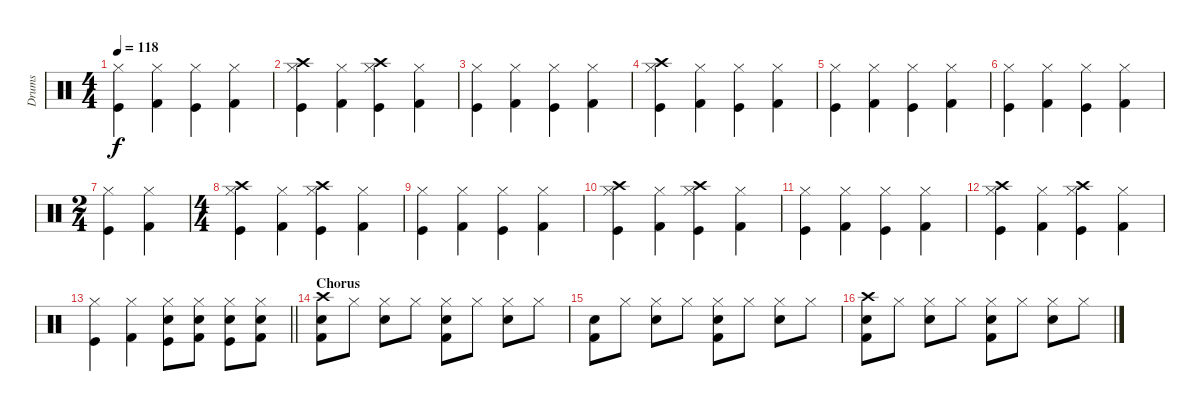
\track ("Drums" "Drums") {instrument percussion}
\staff {score}
\articulation defaults
\ts (4 4)
\tempo 118
\clef neutral
\ks c
("Kick (hit)" "Hi-Hat (closed)").4{dy f} ("Hi-Hat (closed)" "Kick (hit) 2").4 ("Kick (hit)" "Hi-Hat (closed)").4 ("Hi-Hat (closed)" "Kick (hit) 2").4 |
("Crash high (hit)" "Kick (hit)" "Hi-Hat (closed)").4 ("Hi-Hat (closed)" "Kick (hit) 2").4 ("Crash high (hit)" "Kick (hit)" "Hi-Hat (closed)").4 ("Hi-Hat (closed)" "Kick (hit) 2").4 |
("Kick (hit)" "Hi-Hat (closed)").4 ("Hi-Hat (closed)" "Kick (hit) 2").4 ("Kick (hit)" "Hi-Hat (closed)").4 ("Hi-Hat (closed)" "Kick (hit) 2").4 |
("Crash high (hit)" "Kick (hit)" "Hi-Hat (closed)").4 ("Hi-Hat (closed)" "Kick (hit) 2").4 ("Kick (hit)" "Hi-Hat (closed)").4 ("Hi-Hat (closed)" "Kick (hit) 2").4 |
("Kick (hit)" "Hi-Hat (closed)").4 ("Hi-Hat (closed)" "Kick (hit) 2").4 ("Kick (hit)" "Hi-Hat (closed)").4 ("Hi-Hat (closed)" "Kick (hit) 2").4 |
("Kick (hit)" "Hi-Hat (closed)").4 ("Hi-Hat (closed)" "Kick (hit) 2").4 ("Kick (hit)" "Hi-Hat (closed)").4 ("Hi-Hat (closed)" "Kick (hit) 2").4 |
\ts (2 4)
("Kick (hit)" "Hi-Hat (closed)").4 ("Hi-Hat (closed)" "Kick (hit) 2").4 |
\ts (4 4)
("Crash high (hit)" "Kick (hit)" "Hi-Hat (closed)").4 ("Hi-Hat (closed)" "Kick (hit) 2").4 ("Crash high (hit)" "Kick (hit)" "Hi-Hat (closed)").4 ("Hi-Hat (closed)" "Kick (hit) 2").4 |
("Kick (hit)" "Hi-Hat (closed)").4 ("Hi-Hat (closed)" "Kick (hit) 2").4 ("Kick (hit)" "Hi-Hat (closed)").4 ("Hi-Hat (closed)" "Kick (hit) 2").4 |
("Crash high (hit)" "Kick (hit)" "Hi-Hat (closed)").4 ("Hi-Hat (closed)" "Kick (hit) 2").4 ("Crash high (hit)" "Kick (hit)" "Hi-Hat (closed)").4 ("Hi-Hat (closed)" "Kick (hit) 2").4 |
("Kick (hit)" "Hi-Hat (closed)").4 ("Hi-Hat (closed)" "Kick (hit) 2").4 ("Kick (hit)" "Hi-Hat (closed)").4 ("Hi-Hat (closed)" "Kick (hit) 2").4 |
("Crash high (hit)" "Kick (hit)" "Hi-Hat (closed)").4 ("Hi-Hat (closed)" "Kick (hit) 2").4 ("Crash high (hit)" "Kick (hit)" "Hi-Hat (closed)").4 ("Hi-Hat (closed)" "Kick (hit) 2").4 |
\barLineRight lightlight
("Kick (hit)" "Hi-Hat (closed)").4 ("Hi-Hat (closed)" "Kick (hit) 2").4 ("Electric Snare (hit)" "Kick (hit)" "Hi-Hat (closed)").8 ("Electric Snare (hit)" "Hi-Hat (closed)" "Kick (hit) 2").8 ("Electric Snare (hit)" "Kick (hit)" "Hi-Hat (closed)").8 ("Electric Snare (hit)" "Hi-Hat (closed)" "Kick (hit) 2").8 |
\section ("" "Chorus")
("Electric Snare (hit)" "Kick (hit) 2" "Crash high (hit)").8 "Hi-Hat (closed)".8 ("Hi-Hat (closed)" "Electric Snare (hit)").8 "Hi-Hat (closed)".8 ("Hi-Hat (closed)" "Kick (hit) 2" "Electric Snare (hit)").8 "Hi-Hat (closed)".8 ("Hi-Hat (closed)" "Electric Snare (hit)").8 "Hi-Hat (closed)".8 |
("Electric Snare (hit)" "Kick (hit) 2").8 "Hi-Hat (closed)".8 ("Hi-Hat (closed)" "Electric Snare (hit)").8 "Hi-Hat (closed)".8 ("Hi-Hat (closed)" "Kick (hit) 2" "Electric Snare (hit)").8 "Hi-Hat (closed)".8 ("Hi-Hat (closed)" "Electric Snare (hit)").8 "Hi-Hat (closed)".8 |
("Electric Snare (hit)" "Kick (hit) 2" "Crash high (hit)").8 "Hi-Hat (closed)".8 ("Hi-Hat (closed)" "Electric Snare (hit)").8 "Hi-Hat (closed)".8 ("Hi-Hat (closed)" "Kick (hit) 2" "Electric Snare (hit)").8 "Hi-Hat (closed)".8 ("Hi-Hat (closed)" "Electric Snare (hit)").8 "Hi-Hat (closed)".8
